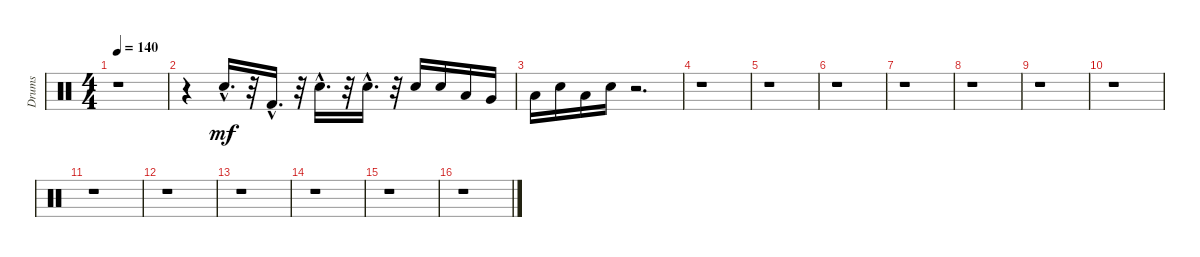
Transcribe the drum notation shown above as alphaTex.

\track ("Drums" "Drums") {instrument percussion}
\staff {score}
\articulation defaults
\ts (4 4)
\tempo 140
\clef neutral
\ks c
r.1{dy mf} |
r.4 "Snare (hit) 2"{hac}.16{d} r.32 "Kick (hit) 2"{hac}.16{d} r.32 "Electric Snare (hit)"{hac}.16{d} r.32 "Snare (hit) 2"{hac}.16{d} r.32 "Snare (hit) 2".16 "Electric Snare (hit)".16 "Low Floor Tom (hit)".16 "Very Low Tom (hit)".16 |
"Low Floor Tom (hit)".16 "Electric Snare (hit)".16 "Low Floor Tom (hit)".16 "Electric Snare (hit)".16 r.2{d} |
r.1 |
r.1 |
r.1 |
r.1 |
r.1 |
r.1 |
r.1 |
r.1 |
r.1 |
r.1 |
r.1 |
r.1 |
r.1
